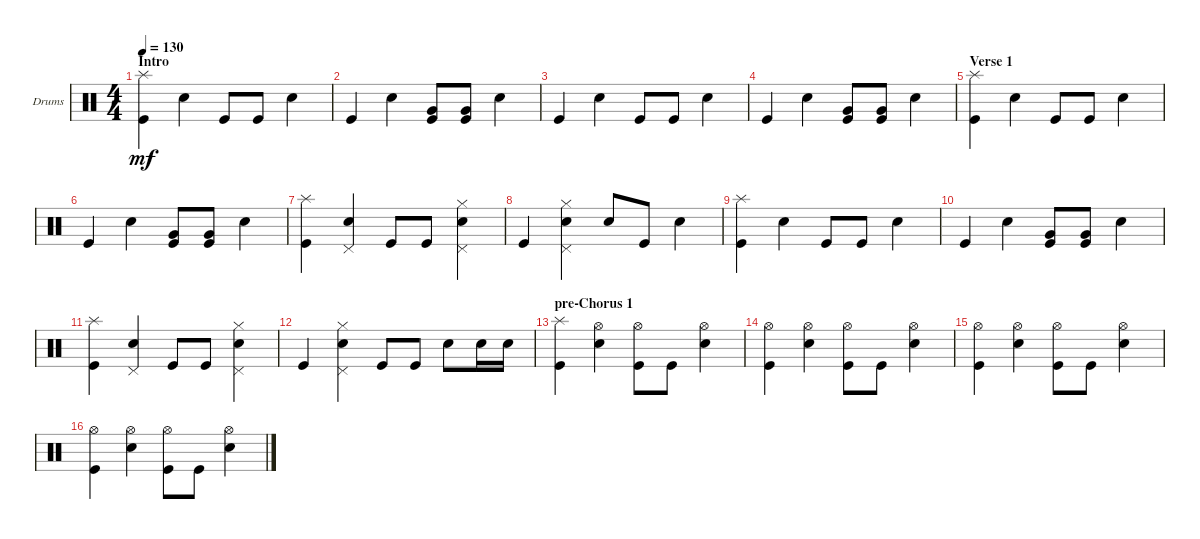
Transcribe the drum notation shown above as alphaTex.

\defaultSystemsLayout 4
\bracketExtendMode groupsimilarinstruments
\firstSystemTrackNameOrientation horizontal
\otherSystemsTrackNameOrientation horizontal
\track ("Drums" "Drums") {instrument percussion}
\staff {score}
\articulation defaults
\ts (4 4)
\section ("" "Intro")
\tempo 130
\clef neutral
\ks c
("Kick (hit)" "Splash (hit)").4{dy mf} "Snare (hit) 2".4 "Kick (hit)".8 "Kick (hit)".8 "Snare (hit) 2".4 |
"Kick (hit)".4 "Snare (hit) 2".4 ("Kick (hit)" "Very Low Tom (hit)").8 ("Kick (hit)" "Very Low Tom (hit)").8 "Snare (hit) 2".4 |
"Kick (hit)".4 "Snare (hit) 2".4 "Kick (hit)".8 "Kick (hit)".8 "Snare (hit) 2".4 |
"Kick (hit)".4 "Snare (hit) 2".4 ("Kick (hit)" "Very Low Tom (hit)").8 ("Kick (hit)" "Very Low Tom (hit)").8 "Snare (hit) 2".4 |
\section ("" "Verse 1")
("Kick (hit)" "Splash (hit)").4 "Snare (hit) 2".4 "Kick (hit)".8 "Kick (hit)".8 "Snare (hit) 2".4 |
"Kick (hit)".4 "Snare (hit) 2".4 ("Kick (hit)" "Very Low Tom (hit)").8 ("Kick (hit)" "Very Low Tom (hit)").8 "Snare (hit) 2".4 |
("Kick (hit)" "Splash (hit)").4 ("Snare (hit) 2" "Pedal Hi-Hat (hit)").4 "Kick (hit)".8 "Kick (hit)".8 ("Snare (hit) 2" "Hi-Hat (closed)" "Pedal Hi-Hat (hit)").4 |
"Kick (hit)".4 ("Snare (hit) 2" "Hi-Hat (closed)" "Pedal Hi-Hat (hit)").4 "Snare (hit) 2".8 "Kick (hit)".8 "Snare (hit) 2".4 |
("Kick (hit)" "Splash (hit)").4 "Snare (hit) 2".4 "Kick (hit)".8 "Kick (hit)".8 "Snare (hit) 2".4 |
"Kick (hit)".4 "Snare (hit) 2".4 ("Kick (hit)" "Very Low Tom (hit)").8 ("Kick (hit)" "Very Low Tom (hit)").8 "Snare (hit) 2".4 |
("Kick (hit)" "Splash (hit)").4 ("Snare (hit) 2" "Pedal Hi-Hat (hit)").4 "Kick (hit)".8 "Kick (hit)".8 ("Snare (hit) 2" "Hi-Hat (closed)" "Pedal Hi-Hat (hit)").4 |
"Kick (hit)".4 ("Snare (hit) 2" "Hi-Hat (closed)" "Pedal Hi-Hat (hit)").4 "Kick (hit)".8 "Kick (hit)".8 "Snare (hit) 2".8 "Snare (hit) 2".16 "Snare (hit) 2".16 |
\section ("" "pre-Chorus 1")
("Kick (hit)" "Splash (hit)").4 ("Snare (hit) 2" "Hi-Hat (open)").4 ("Kick (hit)" "Hi-Hat (open)").8 "Kick (hit)".8 ("Snare (hit) 2" "Hi-Hat (open)").4 |
("Kick (hit)" "Hi-Hat (open)").4 ("Snare (hit) 2" "Hi-Hat (open)").4 ("Kick (hit)" "Hi-Hat (open)").8 "Kick (hit)".8 ("Snare (hit) 2" "Hi-Hat (open)").4 |
("Kick (hit)" "Hi-Hat (open)").4 ("Snare (hit) 2" "Hi-Hat (open)").4 ("Kick (hit)" "Hi-Hat (open)").8 "Kick (hit)".8 ("Snare (hit) 2" "Hi-Hat (open)").4 |
("Kick (hit)" "Hi-Hat (open)").4 ("Snare (hit) 2" "Hi-Hat (open)").4 ("Kick (hit)" "Hi-Hat (open)").8 "Kick (hit)".8 ("Snare (hit) 2" "Hi-Hat (open)").4
